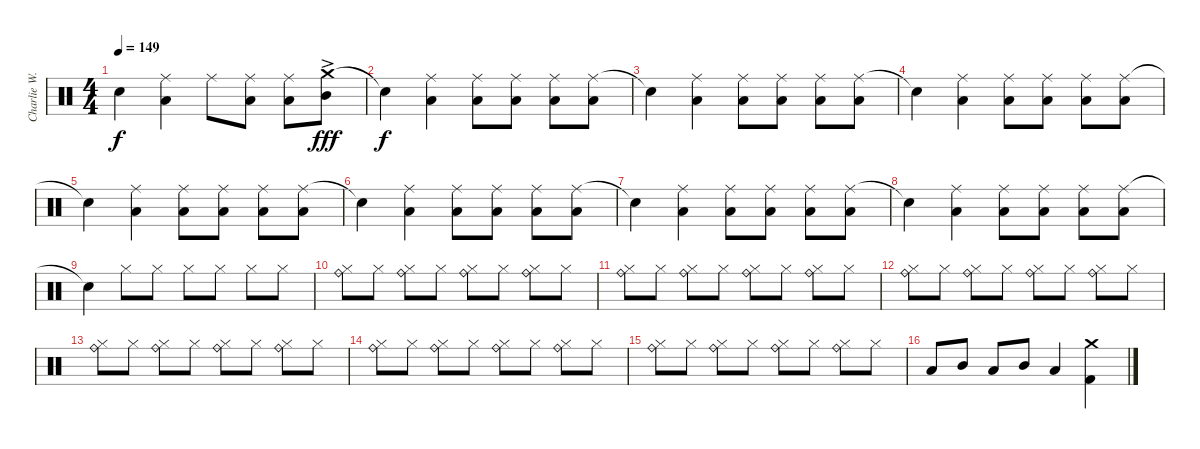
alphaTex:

\track ("Charlie W. drums" "Charlie W.") {instrument percussion}
\staff {score}
\articulation defaults
\ts (4 4)
\tempo 149
\clef neutral
\ks c "Snare (hit)"{t}.4{dy f}
("Ride (middle)" "Low Tom (hit)").4 "Ride (middle)".8 ("Ride (middle)" "Low Tom (hit)").8 ("Ride (middle)" "Low Tom (hit)").8 ("Crash medium (hit)"{ac} "Mid Tom (hit)"{ac}).8{dy fff} |
"Snare (hit)"{t}.4{dy f} ("Ride (middle)" "Low Tom (hit)").4 ("Ride (middle)" "Low Tom (hit)").8 ("Ride (middle)" "Low Tom (hit)").8 ("Ride (middle)" "Low Tom (hit)").8 ("Ride (middle)" "Low Tom (hit)").8 |
"Snare (hit)"{t}.4 ("Ride (middle)" "Low Tom (hit)").4 ("Ride (middle)" "Low Tom (hit)").8 ("Ride (middle)" "Low Tom (hit)").8 ("Ride (middle)" "Low Tom (hit)").8 ("Ride (middle)" "Low Tom (hit)").8 |
"Snare (hit)"{t}.4 ("Ride (middle)" "Low Tom (hit)").4 ("Ride (middle)" "Low Tom (hit)").8 ("Ride (middle)" "Low Tom (hit)").8 ("Ride (middle)" "Low Tom (hit)").8 ("Ride (middle)" "Low Tom (hit)").8 |
"Snare (hit)"{t}.4 ("Ride (middle)" "Low Tom (hit)").4 ("Ride (middle)" "Low Tom (hit)").8 ("Ride (middle)" "Low Tom (hit)").8 ("Ride (middle)" "Low Tom (hit)").8 ("Ride (middle)" "Low Tom (hit)").8 |
"Snare (hit)"{t}.4 ("Ride (middle)" "Low Tom (hit)").4 ("Ride (middle)" "Low Tom (hit)").8 ("Ride (middle)" "Low Tom (hit)").8 ("Ride (middle)" "Low Tom (hit)").8 ("Ride (middle)" "Low Tom (hit)").8 |
"Snare (hit)"{t}.4 ("Ride (middle)" "Low Tom (hit)").4 ("Ride (middle)" "Low Tom (hit)").8 ("Ride (middle)" "Low Tom (hit)").8 ("Ride (middle)" "Low Tom (hit)").8 ("Ride (middle)" "Low Tom (hit)").8 |
"Snare (hit)"{t}.4 ("Ride (middle)" "Low Tom (hit)").4 ("Ride (middle)" "Low Tom (hit)").8 ("Ride (middle)" "Low Tom (hit)").8 ("Ride (middle)" "Low Tom (hit)").8 ("Ride (middle)" "Low Tom (hit)").8 |
"Snare (hit)"{t}.4 "Hi-Hat (closed)".8 "Hi-Hat (closed)".8 "Hi-Hat (closed)".8 "Hi-Hat (closed)".8 "Hi-Hat (closed)".8 "Hi-Hat (closed)".8 |
("Hi-Hat (closed)" "Ride (bell)").8 "Hi-Hat (closed)".8 ("Hi-Hat (closed)" "Ride (bell)").8 "Hi-Hat (closed)".8 ("Hi-Hat (closed)" "Ride (bell)").8 "Hi-Hat (closed)".8 ("Hi-Hat (closed)" "Ride (bell)").8 "Hi-Hat (closed)".8 |
("Hi-Hat (closed)" "Ride (bell)").8 "Hi-Hat (closed)".8 ("Hi-Hat (closed)" "Ride (bell)").8 "Hi-Hat (closed)".8 ("Hi-Hat (closed)" "Ride (bell)").8 "Hi-Hat (closed)".8 ("Hi-Hat (closed)" "Ride (bell)").8 "Hi-Hat (closed)".8 |
("Hi-Hat (closed)" "Ride (bell)").8 "Hi-Hat (closed)".8 ("Hi-Hat (closed)" "Ride (bell)").8 "Hi-Hat (closed)".8 ("Hi-Hat (closed)" "Ride (bell)").8 "Hi-Hat (closed)".8 ("Hi-Hat (closed)" "Ride (bell)").8 "Hi-Hat (closed)".8 |
("Hi-Hat (closed)" "Ride (bell)").8 "Hi-Hat (closed)".8 ("Hi-Hat (closed)" "Ride (bell)").8 "Hi-Hat (closed)".8 ("Hi-Hat (closed)" "Ride (bell)").8 "Hi-Hat (closed)".8 ("Hi-Hat (closed)" "Ride (bell)").8 "Hi-Hat (closed)".8 |
("Hi-Hat (closed)" "Ride (bell)").8 "Hi-Hat (closed)".8 ("Hi-Hat (closed)" "Ride (bell)").8 "Hi-Hat (closed)".8 ("Hi-Hat (closed)" "Ride (bell)").8 "Hi-Hat (closed)".8 ("Hi-Hat (closed)" "Ride (bell)").8 "Hi-Hat (closed)".8 |
("Hi-Hat (closed)" "Ride (bell)").8 "Hi-Hat (closed)".8 ("Hi-Hat (closed)" "Ride (bell)").8 "Hi-Hat (closed)".8 ("Hi-Hat (closed)" "Ride (bell)").8 "Hi-Hat (closed)".8 ("Hi-Hat (closed)" "Ride (bell)").8 "Hi-Hat (closed)".8 |
"Low Tom (hit)".8 "Mid Tom (hit)".8 "Low Tom (hit)".8 "Mid Tom (hit)".8 "Low Tom (hit)".4 ("Crash medium (hit)" "Kick (hit) 2").4
